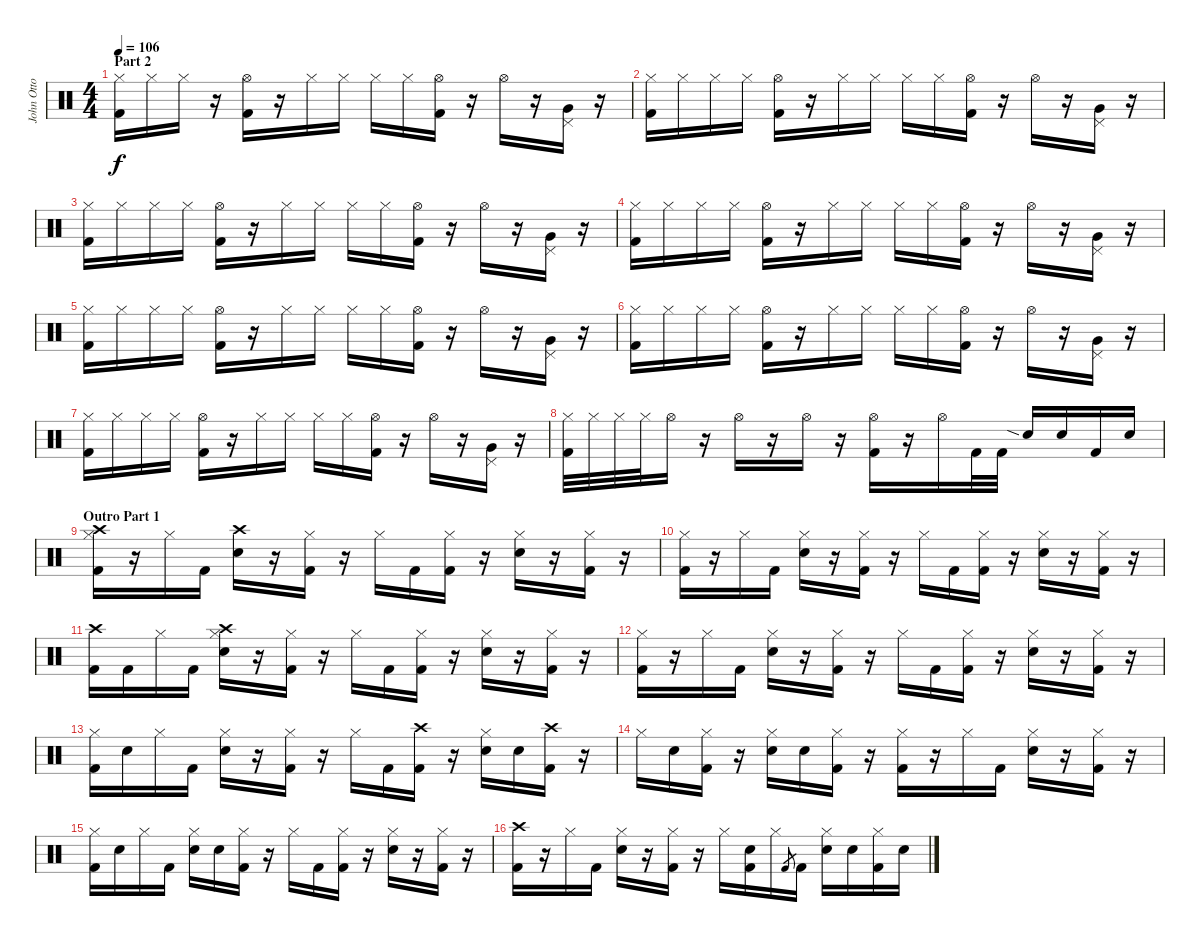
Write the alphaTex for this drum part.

\track ("John Otto - Drums" "John Otto ") {instrument percussion}
\staff {score}
\articulation defaults
\ts (4 4)
\section ("" "Part 2")
\tempo 106
\clef neutral
\ks c
("Hi-Hat (closed)" "Kick (hit) 2").16{dy f} "Hi-Hat (closed)".16 "Hi-Hat (closed)".16 r.16 ("Hi-Hat (open)" "Kick (hit) 2").16 r.16 "Hi-Hat (closed)".16 "Hi-Hat (closed)".16 "Hi-Hat (closed)".16 "Hi-Hat (closed)".16 ("Hi-Hat (open)" "Kick (hit) 2").16 r.16 "Hi-Hat (open)".16 r.16 ("Very Low Tom (hit)" "Pedal Hi-Hat (hit)").16 r.16 |
("Hi-Hat (closed)" "Kick (hit) 2").16 "Hi-Hat (closed)".16 "Hi-Hat (closed)".16 "Hi-Hat (closed)".16 ("Hi-Hat (open)" "Kick (hit) 2").16 r.16 "Hi-Hat (closed)".16 "Hi-Hat (closed)".16 "Hi-Hat (closed)".16 "Hi-Hat (closed)".16 ("Hi-Hat (open)" "Kick (hit) 2").16 r.16 "Hi-Hat (open)".16 r.16 ("Very Low Tom (hit)" "Pedal Hi-Hat (hit)").16 r.16 |
("Hi-Hat (closed)" "Kick (hit) 2").16 "Hi-Hat (closed)".16 "Hi-Hat (closed)".16 "Hi-Hat (closed)".16 ("Hi-Hat (open)" "Kick (hit) 2").16 r.16 "Hi-Hat (closed)".16 "Hi-Hat (closed)".16 "Hi-Hat (closed)".16 "Hi-Hat (closed)".16 ("Hi-Hat (open)" "Kick (hit) 2").16 r.16 "Hi-Hat (open)".16 r.16 ("Very Low Tom (hit)" "Pedal Hi-Hat (hit)").16 r.16 |
("Hi-Hat (closed)" "Kick (hit) 2").16 "Hi-Hat (closed)".16 "Hi-Hat (closed)".16 "Hi-Hat (closed)".16 ("Hi-Hat (open)" "Kick (hit) 2").16 r.16 "Hi-Hat (closed)".16 "Hi-Hat (closed)".16 "Hi-Hat (closed)".16 "Hi-Hat (closed)".16 ("Hi-Hat (open)" "Kick (hit) 2").16 r.16 "Hi-Hat (open)".16 r.16 ("Very Low Tom (hit)" "Pedal Hi-Hat (hit)").16 r.16 |
("Hi-Hat (closed)" "Kick (hit) 2").16 "Hi-Hat (closed)".16 "Hi-Hat (closed)".16 "Hi-Hat (closed)".16 ("Hi-Hat (open)" "Kick (hit) 2").16 r.16 "Hi-Hat (closed)".16 "Hi-Hat (closed)".16 "Hi-Hat (closed)".16 "Hi-Hat (closed)".16 ("Hi-Hat (open)" "Kick (hit) 2").16 r.16 "Hi-Hat (open)".16 r.16 ("Very Low Tom (hit)" "Pedal Hi-Hat (hit)").16 r.16 |
("Hi-Hat (closed)" "Kick (hit) 2").16 "Hi-Hat (closed)".16 "Hi-Hat (closed)".16 "Hi-Hat (closed)".16 ("Hi-Hat (open)" "Kick (hit) 2").16 r.16 "Hi-Hat (closed)".16 "Hi-Hat (closed)".16 "Hi-Hat (closed)".16 "Hi-Hat (closed)".16 ("Hi-Hat (open)" "Kick (hit) 2").16 r.16 "Hi-Hat (open)".16 r.16 ("Very Low Tom (hit)" "Pedal Hi-Hat (hit)").16 r.16 |
("Hi-Hat (closed)" "Kick (hit) 2").16 "Hi-Hat (closed)".16 "Hi-Hat (closed)".16 "Hi-Hat (closed)".16 ("Hi-Hat (open)" "Kick (hit) 2").16 r.16 "Hi-Hat (closed)".16 "Hi-Hat (closed)".16 "Hi-Hat (closed)".16 "Hi-Hat (closed)".16 ("Hi-Hat (open)" "Kick (hit) 2").16 r.16 "Hi-Hat (open)".16 r.16 ("Very Low Tom (hit)" "Pedal Hi-Hat (hit)").16 r.16 |
("Hi-Hat (closed)" "Kick (hit) 2").32 "Hi-Hat (closed)".32 "Hi-Hat (closed)".32 "Hi-Hat (closed)".32 "Hi-Hat (open)".16 r.16 "Hi-Hat (open)".16 r.16 "Hi-Hat (open)".16 r.16 ("Hi-Hat (open)" "Kick (hit) 2").16 r.16 "Hi-Hat (open)".16 "Kick (hit) 2".32 "Kick (hit) 2".32 "Snare (hit) 2"{sia}.16 "Snare (hit) 2".16 "Kick (hit) 2".16 "Snare (hit) 2".16 |
\section ("" "Outro Part 1")
("Crash high (hit)" "Hi-Hat (closed)" "Kick (hit) 2").16 r.16 "Hi-Hat (closed)".16 "Kick (hit) 2".16 ("Crash high (hit)" "Snare (hit) 2").16 r.16 ("Hi-Hat (closed)" "Kick (hit) 2").16 r.16 "Hi-Hat (closed)".16 "Kick (hit) 2".16 ("Hi-Hat (closed)" "Kick (hit) 2").16 r.16 ("Hi-Hat (closed)" "Snare (hit) 2").16 r.16 ("Hi-Hat (closed)" "Kick (hit) 2").16 r.16 |
("Hi-Hat (closed)" "Kick (hit) 2").16 r.16 "Hi-Hat (closed)".16 "Kick (hit) 2".16 ("Hi-Hat (closed)" "Snare (hit) 2").16 r.16 ("Hi-Hat (closed)" "Kick (hit) 2").16 r.16 "Hi-Hat (closed)".16 "Kick (hit) 2".16 ("Hi-Hat (closed)" "Kick (hit) 2").16 r.16 ("Hi-Hat (closed)" "Snare (hit) 2").16 r.16 ("Hi-Hat (closed)" "Kick (hit) 2").16 r.16 |
("Crash high (hit)" "Kick (hit) 2").16 "Kick (hit) 2".16 "Hi-Hat (closed)".16 "Kick (hit) 2".16 ("Crash high (hit)" "Hi-Hat (closed)" "Snare (hit) 2").16 r.16 ("Hi-Hat (closed)" "Kick (hit) 2").16 r.16 "Hi-Hat (closed)".16 "Kick (hit) 2".16 ("Hi-Hat (closed)" "Kick (hit) 2").16 r.16 ("Hi-Hat (closed)" "Snare (hit) 2").16 r.16 ("Hi-Hat (closed)" "Kick (hit) 2").16 r.16 |
("Hi-Hat (closed)" "Kick (hit) 2").16 r.16 "Hi-Hat (closed)".16 "Kick (hit) 2".16 ("Hi-Hat (closed)" "Snare (hit) 2").16 r.16 ("Hi-Hat (closed)" "Kick (hit) 2").16 r.16 "Hi-Hat (closed)".16 "Kick (hit) 2".16 ("Hi-Hat (closed)" "Kick (hit) 2").16 r.16 ("Hi-Hat (closed)" "Snare (hit) 2").16 r.16 ("Hi-Hat (closed)" "Kick (hit) 2").16 r.16 |
("Hi-Hat (closed)" "Kick (hit) 2").16 "Snare (hit) 2".16 "Hi-Hat (closed)".16 "Kick (hit) 2".16 ("Hi-Hat (closed)" "Snare (hit) 2").16 r.16 ("Hi-Hat (closed)" "Kick (hit) 2").16 r.16 "Hi-Hat (closed)".16 "Kick (hit) 2".16 ("Crash high (hit)" "Kick (hit) 2").16 r.16 ("Hi-Hat (closed)" "Snare (hit) 2").16 "Snare (hit) 2".16 ("Crash high (hit)" "Kick (hit) 2").16 r.16 |
"Hi-Hat (closed)".16 "Snare (hit) 2".16 ("Hi-Hat (closed)" "Kick (hit) 2").16 r.16 ("Hi-Hat (closed)" "Snare (hit) 2").16 "Snare (hit) 2".16 ("Hi-Hat (closed)" "Kick (hit) 2").16 r.16 ("Hi-Hat (closed)" "Kick (hit) 2").16 r.16 "Hi-Hat (closed)".16 "Kick (hit) 2".16 ("Hi-Hat (closed)" "Snare (hit) 2").16 r.16 ("Hi-Hat (closed)" "Kick (hit) 2").16 r.16 |
("Hi-Hat (closed)" "Kick (hit) 2").16 "Snare (hit) 2".16 "Hi-Hat (closed)".16 "Kick (hit) 2".16 ("Hi-Hat (closed)" "Snare (hit) 2").16 "Snare (hit) 2".16 ("Hi-Hat (closed)" "Kick (hit) 2").16 r.16 "Hi-Hat (closed)".16 "Kick (hit) 2".16 ("Hi-Hat (closed)" "Kick (hit) 2").16 r.16 ("Hi-Hat (closed)" "Snare (hit) 2").16 r.16 ("Hi-Hat (closed)" "Kick (hit) 2").16 r.16 |
("Crash high (hit)" "Kick (hit) 2").16 r.16 "Hi-Hat (closed)".16 "Kick (hit) 2".16 ("Hi-Hat (closed)" "Snare (hit) 2").16 r.16 ("Hi-Hat (closed)" "Kick (hit) 2").16 r.16 "Hi-Hat (closed)".16 ("Snare (hit) 2" "Kick (hit) 2").16 "Hi-Hat (closed)".16 "Kick (hit) 2".8{gr} "Kick (hit) 2".16 ("Hi-Hat (closed)" "Snare (hit) 2").16 "Snare (hit) 2".16 ("Hi-Hat (closed)" "Kick (hit) 2").16 "Snare (hit) 2".16
